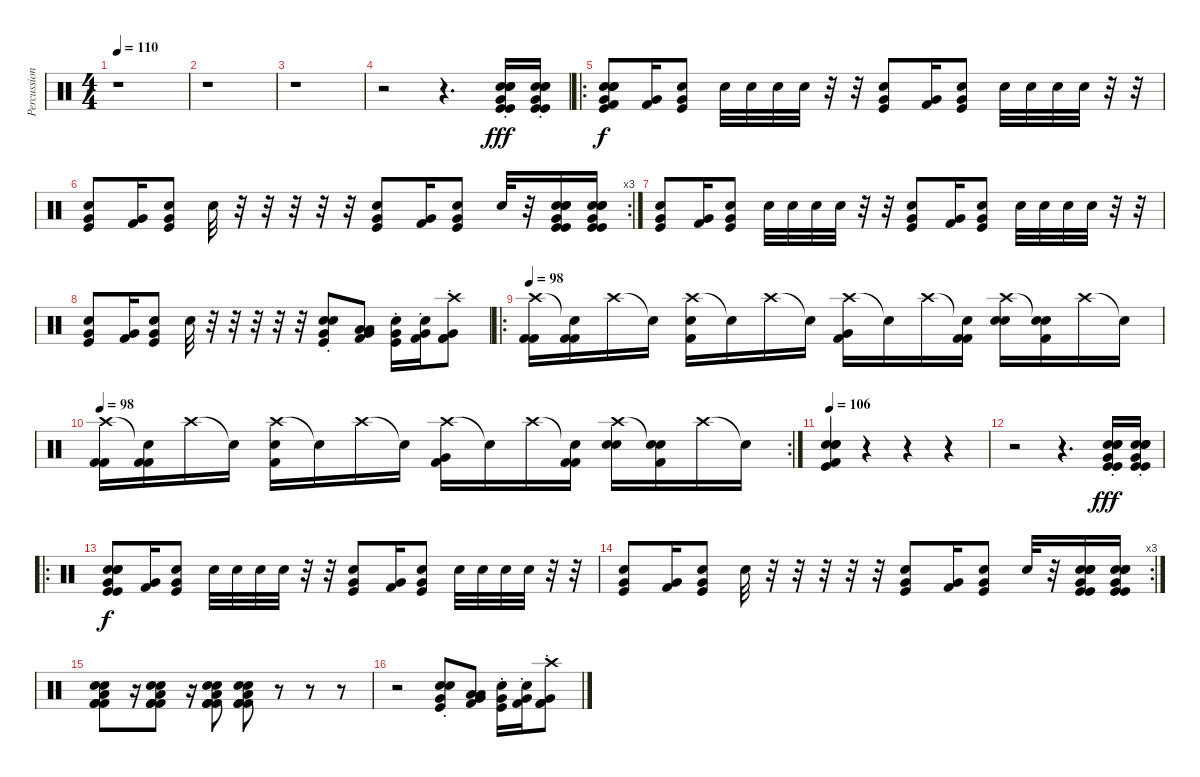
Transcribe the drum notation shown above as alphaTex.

\track ("Percussioni" "Percussion") {instrument percussion}
\staff {score}
\articulation defaults
\ts (4 4)
\tempo 110
\clef neutral
\ks c
r.1{dy fff} |
r.1 |
r.1 |
r.2 r.4{d} ("Very Low Tom (hit)"{st} "Electric Snare (hit)" "Snare (hit) 2" "Snare (hit) 2" "Kick (hit)" "Kick (hit)").16 ("Very Low Tom (hit)"{st} "Electric Snare (hit)" "Snare (hit) 2" "Snare (hit) 2" "Kick (hit)" "Kick (hit)").16 |
\ro
("Very Low Tom (hit)" "Electric Snare (hit)" "Snare (hit) 2" "Snare (hit) 2" "Kick (hit) 2" "Kick (hit)").8{dy f} ("Very Low Tom (hit)" "Kick (hit) 2").16 ("Electric Snare (hit)" "Very Low Tom (hit)" "Kick (hit)").8 "Electric Snare (hit)".32 "Electric Snare (hit)".32 "Electric Snare (hit)".32 "Electric Snare (hit)".32 r.32 r.32 ("Electric Snare (hit)" "Very Low Tom (hit)" "Kick (hit)").8 ("Very Low Tom (hit)" "Kick (hit) 2").16 ("Electric Snare (hit)" "Very Low Tom (hit)" "Kick (hit)").8 "Electric Snare (hit)".32 "Electric Snare (hit)".32 "Electric Snare (hit)".32 "Electric Snare (hit)".32 r.32 r.32 |
\rc 3
("Electric Snare (hit)" "Very Low Tom (hit)" "Kick (hit)").8 ("Very Low Tom (hit)" "Kick (hit) 2").16 ("Electric Snare (hit)" "Very Low Tom (hit)" "Kick (hit)").8 "Electric Snare (hit)".32 r.32 r.32 r.32 r.32 r.32 ("Electric Snare (hit)" "Very Low Tom (hit)" "Kick (hit)").8 ("Very Low Tom (hit)" "Kick (hit) 2").16 ("Electric Snare (hit)" "Very Low Tom (hit)" "Kick (hit)").8 "Electric Snare (hit)".32 r.32 ("Very Low Tom (hit)" "Electric Snare (hit)" "Snare (hit) 2" "Snare (hit) 2" "Kick (hit)" "Kick (hit)").16 ("Very Low Tom (hit)" "Electric Snare (hit)" "Snare (hit) 2" "Snare (hit) 2" "Kick (hit)" "Kick (hit)").16 |
("Electric Snare (hit)" "Very Low Tom (hit)" "Kick (hit)").8 ("Very Low Tom (hit)" "Kick (hit) 2").16 ("Electric Snare (hit)" "Very Low Tom (hit)" "Kick (hit)").8 "Electric Snare (hit)".32 "Electric Snare (hit)".32 "Electric Snare (hit)".32 "Electric Snare (hit)".32 r.32 r.32 ("Electric Snare (hit)" "Very Low Tom (hit)" "Kick (hit)").8 ("Very Low Tom (hit)" "Kick (hit) 2").16 ("Electric Snare (hit)" "Very Low Tom (hit)" "Kick (hit)").8 "Electric Snare (hit)".32 "Electric Snare (hit)".32 "Electric Snare (hit)".32 "Electric Snare (hit)".32 r.32 r.32 |
("Electric Snare (hit)" "Very Low Tom (hit)" "Kick (hit)").8 ("Very Low Tom (hit)" "Kick (hit) 2").16 ("Electric Snare (hit)" "Very Low Tom (hit)" "Kick (hit)").8 "Electric Snare (hit)".32 r.32 r.32 r.32 r.32 r.32 ("Electric Snare (hit)" "Electric Snare (hit)"{st} "Very Low Tom (hit)" "Kick (hit)").8 ("Low Floor Tom (hit)" "Low Floor Tom (hit)" "Very Low Tom (hit)" "Kick (hit) 2").8 ("Electric Snare (hit)"{st} "Very Low Tom (hit)" "Kick (hit)").16 ("Electric Snare (hit)"{st} "Very Low Tom (hit)" "Kick (hit) 2").16 ("Crash high (hit)" "Kick (hit) 2"{st} "Very Low Tom (hit)" "Kick (hit) 2").8 |
\ro
\tempo 98
("Crash high (hit)" "Kick (hit) 2" "Kick (hit) 2").16 ("Snare (hit)"{t} "Kick (hit) 2" "Kick (hit) 2").16 "Crash high (hit)".16 "Snare (hit)"{t}.16 ("Crash high (hit)" "Kick (hit) 2" "Electric Snare (hit)").16 "Snare (hit)"{t}.16 "Crash high (hit)".16 "Snare (hit)"{t}.16 ("Crash high (hit)" "Kick (hit) 2" "Very Low Tom (hit)").16 "Snare (hit)"{t}.16 "Crash high (hit)".16 ("Snare (hit)"{t} "Kick (hit) 2" "Kick (hit) 2").16 ("Crash high (hit)" "Electric Snare (hit)" "Electric Snare (hit)").16 ("Snare (hit)"{t} "Kick (hit) 2" "Electric Snare (hit)").16 "Crash high (hit)".16 "Snare (hit)"{t}.16 |
\rc 2
\tempo 98
("Crash high (hit)" "Kick (hit) 2" "Kick (hit) 2").16 ("Snare (hit)"{t} "Kick (hit) 2" "Kick (hit) 2").16 "Crash high (hit)".16 "Snare (hit)"{t}.16 ("Crash high (hit)" "Kick (hit) 2" "Electric Snare (hit)").16 "Snare (hit)"{t}.16 "Crash high (hit)".16 "Snare (hit)"{t}.16 ("Crash high (hit)" "Kick (hit) 2" "Very Low Tom (hit)").16 "Snare (hit)"{t}.16 "Crash high (hit)".16 ("Snare (hit)"{t} "Kick (hit) 2" "Kick (hit) 2").16 ("Crash high (hit)" "Electric Snare (hit)" "Electric Snare (hit)").16 ("Snare (hit)"{t} "Kick (hit) 2" "Electric Snare (hit)").16 "Crash high (hit)".16 "Snare (hit)"{t}.16 |
\tempo 106
("Electric Snare (hit)" "Electric Snare (hit)" "Kick (hit)" "Kick (hit) 2" "Electric Snare (hit)").4 r.4 r.4 r.4 |
r.2 r.4{d} ("Very Low Tom (hit)"{st} "Electric Snare (hit)" "Snare (hit) 2" "Snare (hit) 2" "Kick (hit)" "Kick (hit)").16{dy fff} ("Very Low Tom (hit)"{st} "Electric Snare (hit)" "Snare (hit) 2" "Snare (hit) 2" "Kick (hit)" "Kick (hit)").16 |
\ro
("Very Low Tom (hit)" "Electric Snare (hit)" "Snare (hit) 2" "Snare (hit) 2" "Kick (hit)" "Kick (hit)").8{dy f} ("Very Low Tom (hit)" "Kick (hit) 2").16 ("Electric Snare (hit)" "Very Low Tom (hit)" "Kick (hit)").8 "Electric Snare (hit)".32 "Electric Snare (hit)".32 "Electric Snare (hit)".32 "Electric Snare (hit)".32 r.32 r.32 ("Electric Snare (hit)" "Very Low Tom (hit)" "Kick (hit)").8 ("Very Low Tom (hit)" "Kick (hit) 2").16 ("Electric Snare (hit)" "Very Low Tom (hit)" "Kick (hit)").8 "Electric Snare (hit)".32 "Electric Snare (hit)".32 "Electric Snare (hit)".32 "Electric Snare (hit)".32 r.32 r.32 |
\rc 3
("Electric Snare (hit)" "Very Low Tom (hit)" "Kick (hit)").8 ("Very Low Tom (hit)" "Kick (hit) 2").16 ("Electric Snare (hit)" "Very Low Tom (hit)" "Kick (hit)").8 "Electric Snare (hit)".32 r.32 r.32 r.32 r.32 r.32 ("Electric Snare (hit)" "Very Low Tom (hit)" "Kick (hit)").8 ("Very Low Tom (hit)" "Kick (hit) 2").16 ("Electric Snare (hit)" "Very Low Tom (hit)" "Kick (hit)").8 "Electric Snare (hit)".32 r.32 ("Very Low Tom (hit)" "Electric Snare (hit)" "Snare (hit) 2" "Snare (hit) 2" "Kick (hit)" "Kick (hit)").16 ("Very Low Tom (hit)" "Electric Snare (hit)" "Snare (hit) 2" "Snare (hit) 2" "Kick (hit)" "Kick (hit)").16 |
("Kick (hit) 2" "Kick (hit) 2" "Low Floor Tom (hit)" "Electric Snare (hit)" "Electric Snare (hit)" "Kick (hit) 2").8 r.16 ("Kick (hit) 2" "Kick (hit) 2" "Low Floor Tom (hit)" "Electric Snare (hit)" "Electric Snare (hit)" "Kick (hit) 2").8 r.16 ("Kick (hit) 2" "Kick (hit) 2" "Low Floor Tom (hit)" "Electric Snare (hit)" "Electric Snare (hit)" "Kick (hit) 2").8 ("Kick (hit) 2" "Kick (hit) 2" "Low Floor Tom (hit)" "Electric Snare (hit)" "Electric Snare (hit)" "Kick (hit) 2").8 r.8 r.8 r.8 |
r.2 ("Electric Snare (hit)" "Electric Snare (hit)"{st} "Very Low Tom (hit)" "Kick (hit)").8 ("Low Floor Tom (hit)" "Low Floor Tom (hit)" "Very Low Tom (hit)" "Kick (hit) 2").8 ("Electric Snare (hit)"{st} "Very Low Tom (hit)" "Kick (hit)").16 ("Electric Snare (hit)"{st} "Very Low Tom (hit)" "Kick (hit) 2").16 ("Crash high (hit)" "Kick (hit) 2"{st} "Very Low Tom (hit)" "Kick (hit) 2").8
